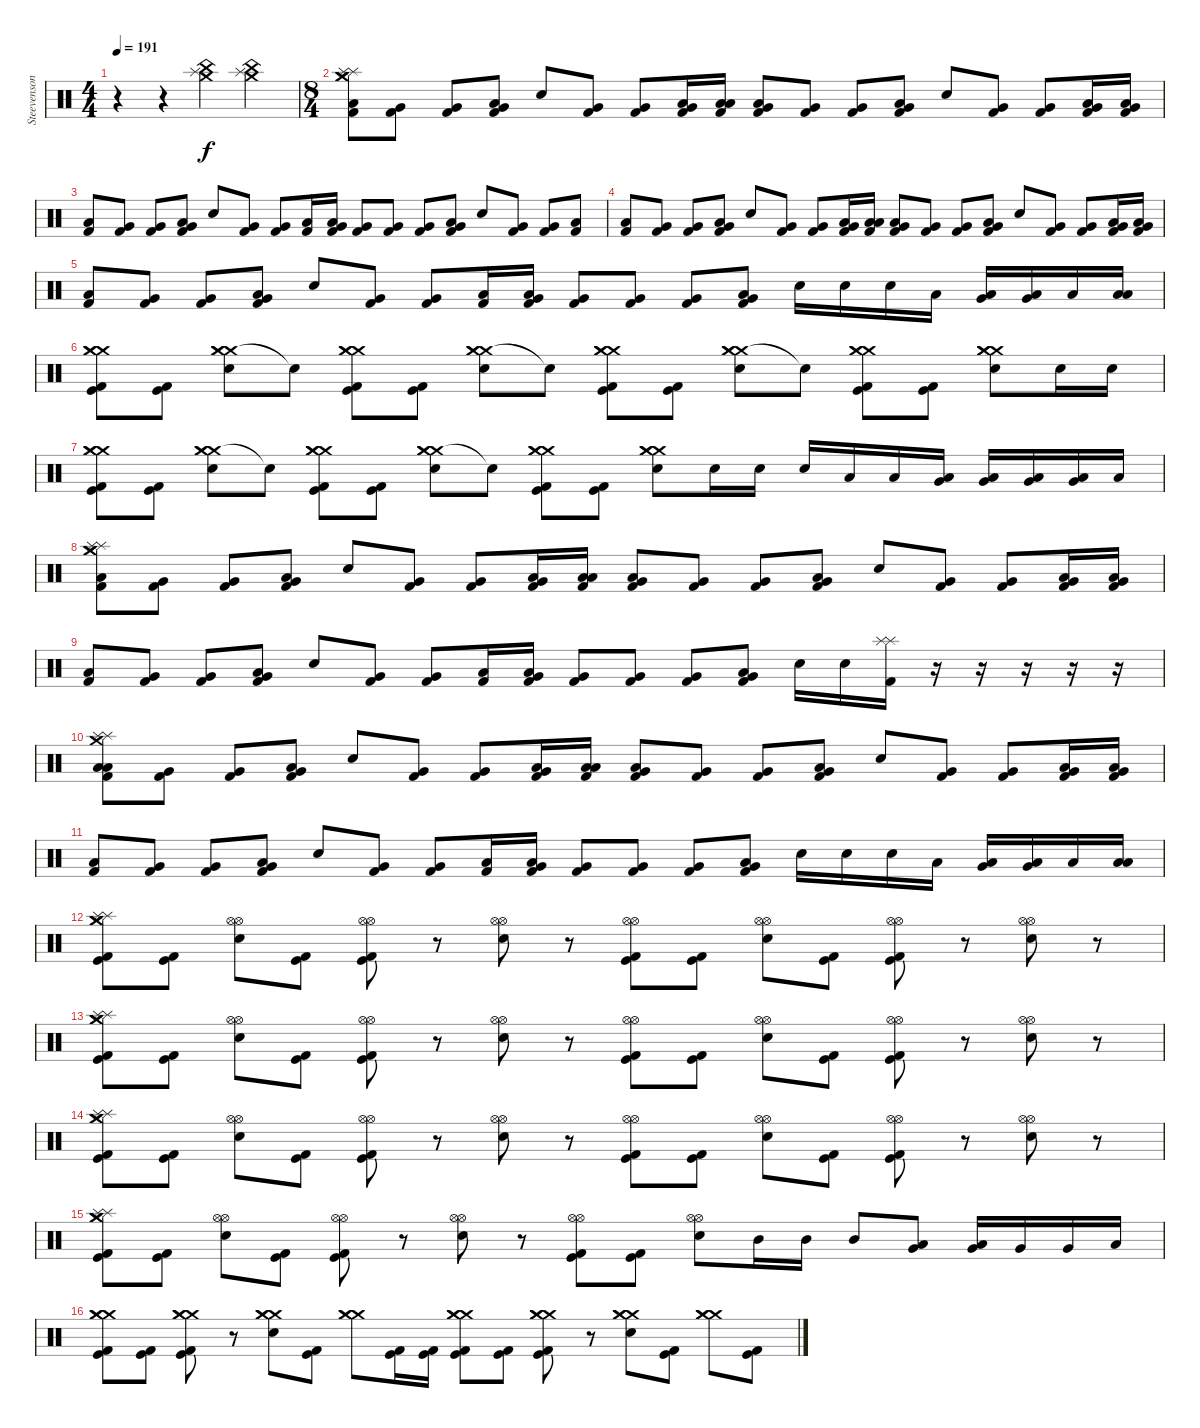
\track ("Steevenson" "Steevenson") {instrument percussion}
\staff {score}
\articulation defaults
\ts (4 4)
\tempo 191
\clef neutral
\ks c
r.4{dy f} r.4 ("Crash medium (hit)" "China (hit)" "Splash (hit)").4 ("Crash medium (hit)" "China (hit)" "Splash (hit)").4 |
\ts (8 4)
("Crash medium (hit)" "Crash medium (hit)" "Splash (hit)" "Splash (hit)" "Low Tom (hit)" "Kick (hit) 2").8 ("Very Low Tom (hit)" "Kick (hit) 2").8 ("Very Low Tom (hit)" "Kick (hit) 2").8 ("Low Floor Tom (hit)" "Very Low Tom (hit)" "Kick (hit) 2").8 "Snare (hit) 2".8 ("Very Low Tom (hit)" "Kick (hit) 2").8 ("Very Low Tom (hit)" "Kick (hit) 2").8 ("Very Low Tom (hit)" "Low Tom (hit)" "Kick (hit) 2").16 ("Low Floor Tom (hit)" "Low Tom (hit)" "Kick (hit) 2").16 ("Low Floor Tom (hit)" "Very Low Tom (hit)" "Kick (hit) 2").8 ("Very Low Tom (hit)" "Kick (hit) 2").8 ("Very Low Tom (hit)" "Kick (hit) 2").8 ("Low Floor Tom (hit)" "Very Low Tom (hit)" "Kick (hit) 2").8 "Snare (hit) 2".8 ("Very Low Tom (hit)" "Kick (hit) 2").8 ("Very Low Tom (hit)" "Kick (hit) 2").8 ("Low Tom (hit)" "Very Low Tom (hit)" "Kick (hit) 2").16 ("Very Low Tom (hit)" "Low Floor Tom (hit)" "Kick (hit) 2").16 |
("Low Tom (hit)" "Kick (hit) 2").8 ("Very Low Tom (hit)" "Kick (hit) 2").8 ("Very Low Tom (hit)" "Kick (hit) 2").8 ("Low Floor Tom (hit)" "Very Low Tom (hit)" "Kick (hit) 2").8 "Snare (hit) 2".8 ("Very Low Tom (hit)" "Kick (hit) 2").8 ("Very Low Tom (hit)" "Kick (hit) 2").8 ("Low Tom (hit)" "Kick (hit) 2").16 ("Very Low Tom (hit)" "Low Tom (hit)" "Kick (hit) 2").16 ("Very Low Tom (hit)" "Kick (hit) 2").8 ("Very Low Tom (hit)" "Kick (hit) 2").8 ("Very Low Tom (hit)" "Kick (hit) 2").8 ("Low Floor Tom (hit)" "Very Low Tom (hit)" "Kick (hit) 2").8 "Snare (hit) 2".8 ("Very Low Tom (hit)" "Kick (hit) 2").8 ("Very Low Tom (hit)" "Kick (hit) 2").8 ("Low Floor Tom (hit)" "Kick (hit) 2").8 |
("Low Tom (hit)" "Kick (hit) 2").8 ("Very Low Tom (hit)" "Kick (hit) 2").8 ("Very Low Tom (hit)" "Kick (hit) 2").8 ("Low Floor Tom (hit)" "Very Low Tom (hit)" "Kick (hit) 2").8 "Snare (hit) 2".8 ("Very Low Tom (hit)" "Kick (hit) 2").8 ("Very Low Tom (hit)" "Kick (hit) 2").8 ("Very Low Tom (hit)" "Low Tom (hit)" "Kick (hit) 2").16 ("Low Floor Tom (hit)" "Low Tom (hit)" "Kick (hit) 2").16 ("Low Floor Tom (hit)" "Very Low Tom (hit)" "Kick (hit) 2").8 ("Very Low Tom (hit)" "Kick (hit) 2").8 ("Very Low Tom (hit)" "Kick (hit) 2").8 ("Low Floor Tom (hit)" "Very Low Tom (hit)" "Kick (hit) 2").8 "Snare (hit) 2".8 ("Very Low Tom (hit)" "Kick (hit) 2").8 ("Very Low Tom (hit)" "Kick (hit) 2").8 ("Low Tom (hit)" "Very Low Tom (hit)" "Kick (hit) 2").16 ("Very Low Tom (hit)" "Low Floor Tom (hit)" "Kick (hit) 2").16 |
("Low Tom (hit)" "Kick (hit) 2").8 ("Very Low Tom (hit)" "Kick (hit) 2").8 ("Very Low Tom (hit)" "Kick (hit) 2").8 ("Low Floor Tom (hit)" "Very Low Tom (hit)" "Kick (hit) 2").8 "Snare (hit) 2".8 ("Very Low Tom (hit)" "Kick (hit) 2").8 ("Very Low Tom (hit)" "Kick (hit) 2").8 ("Low Tom (hit)" "Kick (hit) 2").16 ("Very Low Tom (hit)" "Low Tom (hit)" "Kick (hit) 2").16 ("Very Low Tom (hit)" "Kick (hit) 2").8 ("Very Low Tom (hit)" "Kick (hit) 2").8 ("Very Low Tom (hit)" "Kick (hit) 2").8 ("Low Floor Tom (hit)" "Very Low Tom (hit)" "Kick (hit) 2").8 "Snare (hit) 2".16 "Snare (hit) 2".16 "Snare (hit) 2".16 "Low Tom (hit)".16 ("Very Low Tom (hit)" "Low Tom (hit)").16 ("Low Floor Tom (hit)" "Very Low Tom (hit)").16 "Low Floor Tom (hit)".16 ("Low Floor Tom (hit)" "Low Floor Tom (hit)").16 |
("Crash medium (hit)" "Crash medium (hit)" "Crash medium (hit)" "Kick (hit)" "Kick (hit) 2").8 ("Kick (hit)" "Kick (hit) 2").8 ("Crash medium (hit)" "Crash medium (hit)" "Crash medium (hit)" "Snare (hit) 2").8 "Snare (hit)"{t}.8 ("Crash medium (hit)" "Crash medium (hit)" "Crash medium (hit)" "Kick (hit)" "Kick (hit) 2").8 ("Kick (hit)" "Kick (hit) 2").8 ("Crash medium (hit)" "Crash medium (hit)" "Crash medium (hit)" "Snare (hit) 2").8 "Snare (hit)"{t}.8 ("Crash medium (hit)" "Crash medium (hit)" "Crash medium (hit)" "Kick (hit)" "Kick (hit) 2").8 ("Kick (hit)" "Kick (hit) 2").8 ("Crash medium (hit)" "Crash medium (hit)" "Crash medium (hit)" "Snare (hit) 2").8 "Snare (hit)"{t}.8 ("Crash medium (hit)" "Crash medium (hit)" "Crash medium (hit)" "Kick (hit)" "Kick (hit) 2").8 ("Kick (hit)" "Kick (hit) 2").8 ("Crash medium (hit)" "Crash medium (hit)" "Crash medium (hit)" "Snare (hit) 2").8 "Snare (hit) 2".16 "Snare (hit) 2".16 |
("Crash medium (hit)" "Crash medium (hit)" "Crash medium (hit)" "Kick (hit)" "Kick (hit) 2").8 ("Kick (hit)" "Kick (hit) 2").8 ("Crash medium (hit)" "Crash medium (hit)" "Crash medium (hit)" "Snare (hit) 2").8 "Snare (hit)"{t}.8 ("Crash medium (hit)" "Crash medium (hit)" "Crash medium (hit)" "Kick (hit)" "Kick (hit) 2").8 ("Kick (hit)" "Kick (hit) 2").8 ("Crash medium (hit)" "Crash medium (hit)" "Crash medium (hit)" "Snare (hit) 2").8 "Snare (hit)"{t}.8 ("Crash medium (hit)" "Crash medium (hit)" "Crash medium (hit)" "Kick (hit)" "Kick (hit) 2").8 ("Kick (hit)" "Kick (hit) 2").8 ("Crash medium (hit)" "Crash medium (hit)" "Crash medium (hit)" "Snare (hit) 2").8 "Snare (hit) 2".16 "Snare (hit) 2".16 "Snare (hit) 2".16 "Low Tom (hit)".16 "Low Tom (hit)".16 ("Very Low Tom (hit)" "Low Tom (hit)").16 ("Very Low Tom (hit)" "Low Tom (hit)").16 ("Very Low Tom (hit)" "Low Floor Tom (hit)").16 ("Very Low Tom (hit)" "Low Floor Tom (hit)").16 "Low Floor Tom (hit)".16 |
("Crash medium (hit)" "Crash medium (hit)" "Splash (hit)" "Splash (hit)" "Low Tom (hit)" "Kick (hit) 2").8 ("Very Low Tom (hit)" "Kick (hit) 2").8 ("Very Low Tom (hit)" "Kick (hit) 2").8 ("Low Floor Tom (hit)" "Very Low Tom (hit)" "Kick (hit) 2").8 "Snare (hit) 2".8 ("Very Low Tom (hit)" "Kick (hit) 2").8 ("Very Low Tom (hit)" "Kick (hit) 2").8 ("Very Low Tom (hit)" "Low Tom (hit)" "Kick (hit) 2").16 ("Low Floor Tom (hit)" "Low Tom (hit)" "Kick (hit) 2").16 ("Low Floor Tom (hit)" "Very Low Tom (hit)" "Kick (hit) 2").8 ("Very Low Tom (hit)" "Kick (hit) 2").8 ("Very Low Tom (hit)" "Kick (hit) 2").8 ("Low Floor Tom (hit)" "Very Low Tom (hit)" "Kick (hit) 2").8 "Snare (hit) 2".8 ("Very Low Tom (hit)" "Kick (hit) 2").8 ("Very Low Tom (hit)" "Kick (hit) 2").8 ("Low Tom (hit)" "Very Low Tom (hit)" "Kick (hit) 2").16 ("Very Low Tom (hit)" "Low Floor Tom (hit)" "Kick (hit) 2").16 |
("Low Tom (hit)" "Kick (hit) 2").8 ("Very Low Tom (hit)" "Kick (hit) 2").8 ("Very Low Tom (hit)" "Kick (hit) 2").8 ("Low Floor Tom (hit)" "Very Low Tom (hit)" "Kick (hit) 2").8 "Snare (hit) 2".8 ("Very Low Tom (hit)" "Kick (hit) 2").8 ("Very Low Tom (hit)" "Kick (hit) 2").8 ("Low Tom (hit)" "Kick (hit) 2").16 ("Very Low Tom (hit)" "Low Tom (hit)" "Kick (hit) 2").16 ("Very Low Tom (hit)" "Kick (hit) 2").8 ("Very Low Tom (hit)" "Kick (hit) 2").8 ("Very Low Tom (hit)" "Kick (hit) 2").8 ("Low Floor Tom (hit)" "Very Low Tom (hit)" "Kick (hit) 2").8 "Snare (hit) 2".16 "Snare (hit) 2".16 ("Splash (hit)" "Splash (hit)" "Kick (hit) 2").16 r.16 r.16 r.16 r.16 r.16 |
("Splash (hit)" "Crash medium (hit)" "Splash (hit)" "Low Floor Tom (hit)" "Low Tom (hit)" "Kick (hit) 2").8 ("Very Low Tom (hit)" "Kick (hit) 2").8 ("Very Low Tom (hit)" "Kick (hit) 2").8 ("Low Floor Tom (hit)" "Very Low Tom (hit)" "Kick (hit) 2").8 "Snare (hit) 2".8 ("Very Low Tom (hit)" "Kick (hit) 2").8 ("Very Low Tom (hit)" "Kick (hit) 2").8 ("Very Low Tom (hit)" "Low Tom (hit)" "Kick (hit) 2").16 ("Low Floor Tom (hit)" "Low Tom (hit)" "Kick (hit) 2").16 ("Low Floor Tom (hit)" "Very Low Tom (hit)" "Kick (hit) 2").8 ("Very Low Tom (hit)" "Kick (hit) 2").8 ("Very Low Tom (hit)" "Kick (hit) 2").8 ("Low Floor Tom (hit)" "Very Low Tom (hit)" "Kick (hit) 2").8 "Snare (hit) 2".8 ("Very Low Tom (hit)" "Kick (hit) 2").8 ("Very Low Tom (hit)" "Kick (hit) 2").8 ("Low Tom (hit)" "Very Low Tom (hit)" "Kick (hit) 2").16 ("Very Low Tom (hit)" "Low Floor Tom (hit)" "Kick (hit) 2").16 |
("Low Tom (hit)" "Kick (hit) 2").8 ("Very Low Tom (hit)" "Kick (hit) 2").8 ("Very Low Tom (hit)" "Kick (hit) 2").8 ("Low Floor Tom (hit)" "Very Low Tom (hit)" "Kick (hit) 2").8 "Snare (hit) 2".8 ("Very Low Tom (hit)" "Kick (hit) 2").8 ("Very Low Tom (hit)" "Kick (hit) 2").8 ("Low Tom (hit)" "Kick (hit) 2").16 ("Very Low Tom (hit)" "Low Tom (hit)" "Kick (hit) 2").16 ("Very Low Tom (hit)" "Kick (hit) 2").8 ("Very Low Tom (hit)" "Kick (hit) 2").8 ("Very Low Tom (hit)" "Kick (hit) 2").8 ("Low Floor Tom (hit)" "Very Low Tom (hit)" "Kick (hit) 2").8 "Snare (hit) 2".16 "Snare (hit) 2".16 "Snare (hit) 2".16 "Low Tom (hit)".16 ("Very Low Tom (hit)" "Low Tom (hit)").16 ("Low Floor Tom (hit)" "Very Low Tom (hit)").16 "Low Floor Tom (hit)".16 ("Low Floor Tom (hit)" "Low Floor Tom (hit)").16 |
("Crash medium (hit)" "Crash medium (hit)" "Splash (hit)" "Splash (hit)" "Kick (hit)" "Kick (hit) 2").8 ("Kick (hit)" "Kick (hit) 2").8 ("Hi-Hat (open)" "Hi-Hat (open)" "Snare (hit) 2").8 ("Kick (hit)" "Kick (hit) 2").8 ("Hi-Hat (open)" "Hi-Hat (open)" "Kick (hit)" "Kick (hit) 2").8 r.8 ("Hi-Hat (open)" "Hi-Hat (open)" "Snare (hit) 2").8 r.8 ("Hi-Hat (open)" "Hi-Hat (open)" "Kick (hit)" "Kick (hit) 2").8 ("Kick (hit)" "Kick (hit) 2").8 ("Hi-Hat (open)" "Hi-Hat (open)" "Snare (hit) 2").8 ("Kick (hit)" "Kick (hit) 2").8 ("Hi-Hat (open)" "Hi-Hat (open)" "Kick (hit)" "Kick (hit) 2").8 r.8 ("Hi-Hat (open)" "Hi-Hat (open)" "Snare (hit) 2").8 r.8 |
("Crash medium (hit)" "Crash medium (hit)" "Splash (hit)" "Splash (hit)" "Kick (hit)" "Kick (hit) 2").8 ("Kick (hit)" "Kick (hit) 2").8 ("Hi-Hat (open)" "Hi-Hat (open)" "Snare (hit) 2").8 ("Kick (hit)" "Kick (hit) 2").8 ("Hi-Hat (open)" "Hi-Hat (open)" "Kick (hit)" "Kick (hit) 2").8 r.8 ("Hi-Hat (open)" "Hi-Hat (open)" "Snare (hit) 2").8 r.8 ("Hi-Hat (open)" "Hi-Hat (open)" "Kick (hit)" "Kick (hit) 2").8 ("Kick (hit)" "Kick (hit) 2").8 ("Hi-Hat (open)" "Hi-Hat (open)" "Snare (hit) 2").8 ("Kick (hit)" "Kick (hit) 2").8 ("Hi-Hat (open)" "Hi-Hat (open)" "Kick (hit)" "Kick (hit) 2").8 r.8 ("Hi-Hat (open)" "Hi-Hat (open)" "Snare (hit) 2").8 r.8 |
("Crash medium (hit)" "Crash medium (hit)" "Splash (hit)" "Splash (hit)" "Kick (hit)" "Kick (hit) 2").8 ("Kick (hit)" "Kick (hit) 2").8 ("Hi-Hat (open)" "Hi-Hat (open)" "Snare (hit) 2").8 ("Kick (hit)" "Kick (hit) 2").8 ("Hi-Hat (open)" "Hi-Hat (open)" "Kick (hit)" "Kick (hit) 2").8 r.8 ("Hi-Hat (open)" "Hi-Hat (open)" "Snare (hit) 2").8 r.8 ("Hi-Hat (open)" "Hi-Hat (open)" "Kick (hit)" "Kick (hit) 2").8 ("Kick (hit)" "Kick (hit) 2").8 ("Hi-Hat (open)" "Hi-Hat (open)" "Snare (hit) 2").8 ("Kick (hit)" "Kick (hit) 2").8 ("Hi-Hat (open)" "Hi-Hat (open)" "Kick (hit)" "Kick (hit) 2").8 r.8 ("Hi-Hat (open)" "Hi-Hat (open)" "Snare (hit) 2").8 r.8 |
("Crash medium (hit)" "Crash medium (hit)" "Splash (hit)" "Splash (hit)" "Kick (hit)" "Kick (hit) 2").8 ("Kick (hit)" "Kick (hit) 2").8 ("Hi-Hat (open)" "Hi-Hat (open)" "Snare (hit) 2").8 ("Kick (hit)" "Kick (hit) 2").8 ("Hi-Hat (open)" "Hi-Hat (open)" "Kick (hit)" "Kick (hit) 2").8 r.8 ("Hi-Hat (open)" "Hi-Hat (open)" "Snare (hit) 2").8 r.8 ("Hi-Hat (open)" "Hi-Hat (open)" "Kick (hit)" "Kick (hit) 2").8 ("Kick (hit)" "Kick (hit) 2").8 ("Hi-Hat (open)" "Hi-Hat (open)" "Snare (hit) 2").8 "Mid Tom (hit)".16 "Mid Tom (hit)".16 "Mid Tom (hit)".8 ("Low Tom (hit)" "Very Low Tom (hit)").8 ("Very Low Tom (hit)" "Low Tom (hit)").16 "Very Low Tom (hit)".16 "Very Low Tom (hit)".16 "Low Floor Tom (hit)".16 |
("Crash medium (hit)" "Crash medium (hit)" "Crash medium (hit)" "Kick (hit)" "Kick (hit) 2").8 ("Kick (hit)" "Kick (hit) 2").8 ("Crash medium (hit)" "Crash medium (hit)" "Crash medium (hit)" "Kick (hit)" "Kick (hit) 2").8 r.8 ("Crash medium (hit)" "Crash medium (hit)" "Crash medium (hit)" "Snare (hit) 2").8 ("Kick (hit)" "Kick (hit) 2").8 ("Crash medium (hit)" "Crash medium (hit)" "Crash medium (hit)").8 ("Kick (hit)" "Kick (hit) 2").16 ("Kick (hit)" "Kick (hit) 2").16 ("Crash medium (hit)" "Crash medium (hit)" "Crash medium (hit)" "Kick (hit)" "Kick (hit) 2").8 ("Kick (hit)" "Kick (hit) 2").8 ("Crash medium (hit)" "Crash medium (hit)" "Crash medium (hit)" "Kick (hit)" "Kick (hit) 2").8 r.8 ("Crash medium (hit)" "Crash medium (hit)" "Crash medium (hit)" "Snare (hit) 2").8 ("Kick (hit)" "Kick (hit) 2").8 ("Crash medium (hit)" "Crash medium (hit)" "Crash medium (hit)").8 ("Kick (hit)" "Kick (hit) 2").8
